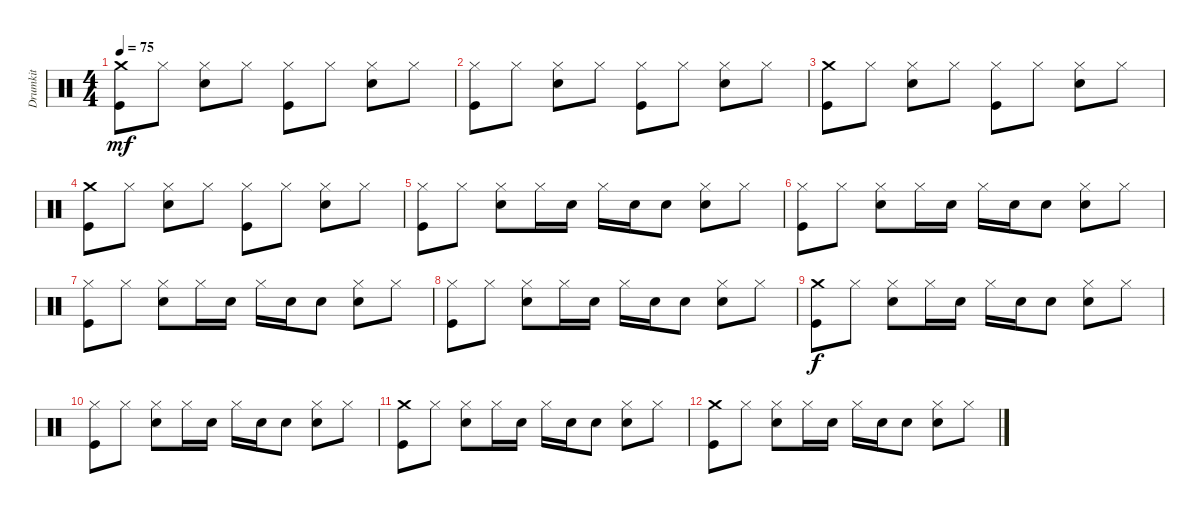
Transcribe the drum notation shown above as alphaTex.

\track ("Drumkit" "Drumkit") {instrument percussion}
\staff {score}
\articulation defaults
\ts (4 4)
\tempo 75
\clef neutral
\ks c
("Kick (hit)" "Crash medium (hit)").8{dy mf} "Hi-Hat (closed)".8 ("Snare (hit) 2" "Hi-Hat (closed)").8 "Hi-Hat (closed)".8 ("Kick (hit)" "Hi-Hat (closed)").8 "Hi-Hat (closed)".8 ("Snare (hit) 2" "Hi-Hat (closed)").8 "Hi-Hat (closed)".8 |
("Kick (hit)" "Hi-Hat (closed)").8 "Hi-Hat (closed)".8 ("Snare (hit) 2" "Hi-Hat (closed)").8 "Hi-Hat (closed)".8 ("Kick (hit)" "Hi-Hat (closed)").8 "Hi-Hat (closed)".8 ("Snare (hit) 2" "Hi-Hat (closed)").8 "Hi-Hat (closed)".8 |
("Kick (hit)" "Crash medium (hit)").8 "Hi-Hat (closed)".8 ("Snare (hit) 2" "Hi-Hat (closed)").8 "Hi-Hat (closed)".8 ("Kick (hit)" "Hi-Hat (closed)").8 "Hi-Hat (closed)".8 ("Snare (hit) 2" "Hi-Hat (closed)").8 "Hi-Hat (closed)".8 |
("Kick (hit)" "Crash medium (hit)").8 "Hi-Hat (closed)".8 ("Snare (hit) 2" "Hi-Hat (closed)").8 "Hi-Hat (closed)".8 ("Kick (hit)" "Hi-Hat (closed)").8 "Hi-Hat (closed)".8 ("Snare (hit) 2" "Hi-Hat (closed)").8 "Hi-Hat (closed)".8 |
("Kick (hit)" "Hi-Hat (closed)").8 "Hi-Hat (closed)".8 ("Snare (hit) 2" "Hi-Hat (closed)").8 "Hi-Hat (closed)".16 "Snare (hit) 2".16 "Hi-Hat (closed)".16 "Snare (hit) 2".16 "Snare (hit) 2".8 ("Snare (hit) 2" "Hi-Hat (closed)").8 "Hi-Hat (closed)".8 |
("Kick (hit)" "Hi-Hat (closed)").8 "Hi-Hat (closed)".8 ("Snare (hit) 2" "Hi-Hat (closed)").8 "Hi-Hat (closed)".16 "Snare (hit) 2".16 "Hi-Hat (closed)".16 "Snare (hit) 2".16 "Snare (hit) 2".8 ("Snare (hit) 2" "Hi-Hat (closed)").8 "Hi-Hat (closed)".8 |
("Kick (hit)" "Hi-Hat (closed)").8 "Hi-Hat (closed)".8 ("Snare (hit) 2" "Hi-Hat (closed)").8 "Hi-Hat (closed)".16 "Snare (hit) 2".16 "Hi-Hat (closed)".16 "Snare (hit) 2".16 "Snare (hit) 2".8 ("Snare (hit) 2" "Hi-Hat (closed)").8 "Hi-Hat (closed)".8 |
("Kick (hit)" "Hi-Hat (closed)").8 "Hi-Hat (closed)".8 ("Snare (hit) 2" "Hi-Hat (closed)").8 "Hi-Hat (closed)".16 "Snare (hit) 2".16 "Hi-Hat (closed)".16 "Snare (hit) 2".16 "Snare (hit) 2".8 ("Snare (hit) 2" "Hi-Hat (closed)").8 "Hi-Hat (closed)".8 |
("Kick (hit)" "Crash medium (hit)").8{dy f} "Hi-Hat (closed)".8 ("Snare (hit) 2" "Hi-Hat (closed)").8 "Hi-Hat (closed)".16 "Snare (hit) 2".16 "Hi-Hat (closed)".16 "Snare (hit) 2".16 "Snare (hit) 2".8 ("Snare (hit) 2" "Hi-Hat (closed)").8 "Hi-Hat (closed)".8 |
("Kick (hit)" "Hi-Hat (closed)").8 "Hi-Hat (closed)".8 ("Snare (hit) 2" "Hi-Hat (closed)").8 "Hi-Hat (closed)".16 "Snare (hit) 2".16 "Hi-Hat (closed)".16 "Snare (hit) 2".16 "Snare (hit) 2".8 ("Snare (hit) 2" "Hi-Hat (closed)").8 "Hi-Hat (closed)".8 |
("Kick (hit)" "Crash medium (hit)").8 "Hi-Hat (closed)".8 ("Snare (hit) 2" "Hi-Hat (closed)").8 "Hi-Hat (closed)".16 "Snare (hit) 2".16 "Hi-Hat (closed)".16 "Snare (hit) 2".16 "Snare (hit) 2".8 ("Snare (hit) 2" "Hi-Hat (closed)").8 "Hi-Hat (closed)".8 |
("Kick (hit)" "Crash medium (hit)").8 "Hi-Hat (closed)".8 ("Snare (hit) 2" "Hi-Hat (closed)").8 "Hi-Hat (closed)".16 "Snare (hit) 2".16 "Hi-Hat (closed)".16 "Snare (hit) 2".16 "Snare (hit) 2".8 ("Snare (hit) 2" "Hi-Hat (closed)").8 "Hi-Hat (closed)".8
